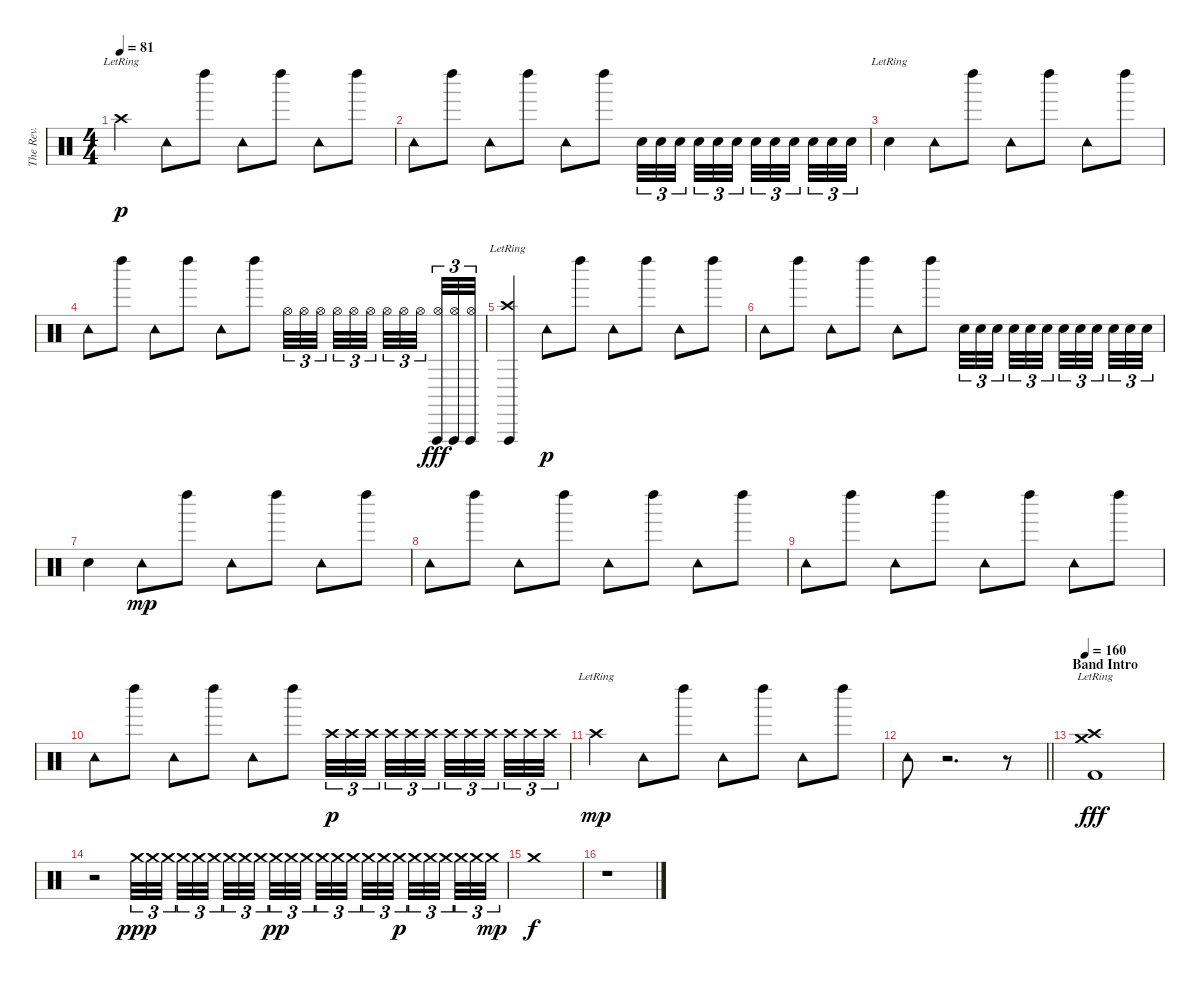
\track ("The Rev." "The Rev.") {instrument percussion}
\staff {score}
\articulation defaults
\ts (4 4)
\tempo 81
\clef neutral
\ks c "Crash high (hit)"{lr}.4{dy p} "Tambourine (hit)".8 "Left Maraca (hit)".8 "Tambourine (hit)".8 "Left Maraca (hit)".8 "Tambourine (hit)".8 "Left Maraca (hit)".8
|
"Tambourine (hit)".8 "Left Maraca (hit)".8 "Tambourine (hit)".8 "Left Maraca (hit)".8 "Tambourine (hit)".8 "Left Maraca (hit)".8 "Electric Snare (hit)".32{tu (3 2)} "Electric Snare (hit)".32{tu (3 2)} "Electric Snare (hit)".32{tu (3 2) beam splitsecondary} "Electric Snare (hit)".32{tu (3 2)} "Electric Snare (hit)".32{tu (3 2)} "Electric Snare (hit)".32{tu (3 2) beam splitsecondary} "Electric Snare (hit)".32{tu (3 2)} "Electric Snare (hit)".32{tu (3 2)} "Electric Snare (hit)".32{tu (3 2) beam splitsecondary} "Electric Snare (hit)".32{tu (3 2)} "Electric Snare (hit)".32{tu (3 2)} "Electric Snare (hit)".32{tu (3 2)} |
"Electric Snare (hit)"{lr}.4 "Tambourine (hit)".8 "Left Maraca (hit)".8 "Tambourine (hit)".8 "Left Maraca (hit)".8 "Tambourine (hit)".8 "Left Maraca (hit)".8 |
"Tambourine (hit)".8 "Left Maraca (hit)".8 "Tambourine (hit)".8 "Left Maraca (hit)".8 "Tambourine (hit)".8 "Left Maraca (hit)".8 "Hi-Hat (open)".32{tu (3 2)} "Hi-Hat (open)".32{tu (3 2)} "Hi-Hat (open)".32{tu (3 2) beam splitsecondary} "Hi-Hat (open)".32{tu (3 2)} "Hi-Hat (open)".32{tu (3 2)} "Hi-Hat (open)".32{tu (3 2) beam splitsecondary} "Hi-Hat (open)".32{tu (3 2)} "Hi-Hat (open)".32{tu (3 2)} "Hi-Hat (open)".32{tu (3 2) beam splitsecondary} ("Hi-Hat (open)" "Vibraslap (hit)").32{tu (3 2) dy fff} ("Hi-Hat (open)" "Vibraslap (hit)").32{tu (3 2)} ("Hi-Hat (open)" "Vibraslap (hit)").32{tu (3 2)} |
("Crash high (hit)"{lr} "Vibraslap (hit)"{lr}).4 "Tambourine (hit)".8{dy p} "Left Maraca (hit)".8 "Tambourine (hit)".8 "Left Maraca (hit)".8 "Tambourine (hit)".8 "Left Maraca (hit)".8 |
"Tambourine (hit)".8 "Left Maraca (hit)".8 "Tambourine (hit)".8 "Left Maraca (hit)".8 "Tambourine (hit)".8 "Left Maraca (hit)".8 "Electric Snare (hit)".32{tu (3 2)} "Electric Snare (hit)".32{tu (3 2)} "Electric Snare (hit)".32{tu (3 2) beam splitsecondary} "Electric Snare (hit)".32{tu (3 2)} "Electric Snare (hit)".32{tu (3 2)} "Electric Snare (hit)".32{tu (3 2) beam splitsecondary} "Electric Snare (hit)".32{tu (3 2)} "Electric Snare (hit)".32{tu (3 2)} "Electric Snare (hit)".32{tu (3 2) beam splitsecondary} "Electric Snare (hit)".32{tu (3 2)} "Electric Snare (hit)".32{tu (3 2)} "Electric Snare (hit)".32{tu (3 2)} |
"Electric Snare (hit)".4 "Tambourine (hit)".8{dy mp} "Left Maraca (hit)".8 "Tambourine (hit)".8 "Left Maraca (hit)".8 "Tambourine (hit)".8 "Left Maraca (hit)".8 |
"Tambourine (hit)".8 "Left Maraca (hit)".8 "Tambourine (hit)".8 "Left Maraca (hit)".8 "Tambourine (hit)".8 "Left Maraca (hit)".8 "Tambourine (hit)".8 "Left Maraca (hit)".8 |
"Tambourine (hit)".8 "Left Maraca (hit)".8 "Tambourine (hit)".8 "Left Maraca (hit)".8 "Tambourine (hit)".8 "Left Maraca (hit)".8 "Tambourine (hit)".8 "Left Maraca (hit)".8 |
"Tambourine (hit)".8 "Left Maraca (hit)".8 "Tambourine (hit)".8 "Left Maraca (hit)".8 "Tambourine (hit)".8 "Left Maraca (hit)".8 "Crash high (hit)".32{tu (3 2) dy p} "Crash high (hit)".32{tu (3 2)} "Crash high (hit)".32{tu (3 2) beam splitsecondary} "Crash high (hit)".32{tu (3 2)} "Crash high (hit)".32{tu (3 2)} "Crash high (hit)".32{tu (3 2) beam splitsecondary} "Crash high (hit)".32{tu (3 2)} "Crash high (hit)".32{tu (3 2)} "Crash high (hit)".32{tu (3 2) beam splitsecondary} "Crash high (hit)".32{tu (3 2)} "Crash high (hit)".32{tu (3 2)} "Crash high (hit)".32{tu (3 2)} |
"Crash high (hit)"{lr}.4{dy mp} "Tambourine (hit)".8 "Left Maraca (hit)".8 "Tambourine (hit)".8 "Left Maraca (hit)".8 "Tambourine (hit)".8 "Left Maraca (hit)".8 |
\barLineRight lightlight "Tambourine (hit)".8
r.2{d} r.8 |
\section ("" "Band Intro")
\tempo 160
("Kick (hit) 2" "Crash high (hit)"{lr} "Crash medium (hit)"{lr}).1{dy fff} |
r.2 "Crash medium (hit)".32{tu (3 2) dy ppp} "Crash medium (hit)".32{tu (3 2)} "Crash medium (hit)".32{tu (3 2) beam splitsecondary} "Crash medium (hit)".32{tu (3 2)} "Crash medium (hit)".32{tu (3 2)} "Crash medium (hit)".32{tu (3 2) beam splitsecondary} "Crash medium (hit)".32{tu (3 2)} "Crash medium (hit)".32{tu (3 2)} "Crash medium (hit)".32{tu (3 2) beam splitsecondary} "Crash medium (hit)".32{tu (3 2) dy pp} "Crash medium (hit)".32{tu (3 2)} "Crash medium (hit)".32{tu (3 2)} "Crash medium (hit)".32{tu (3 2)} "Crash medium (hit)".32{tu (3 2)} "Crash medium (hit)".32{tu (3 2) beam splitsecondary} "Crash medium (hit)".32{tu (3 2)} "Crash medium (hit)".32{tu (3 2)} "Crash medium (hit)".32{tu (3 2) dy p beam splitsecondary} "Crash medium (hit)".32{tu (3 2)} "Crash medium (hit)".32{tu (3 2)} "Crash medium (hit)".32{tu (3 2) beam splitsecondary} "Crash medium (hit)".32{tu (3 2)} "Crash medium (hit)".32{tu (3 2)} "Crash medium (hit)".32{tu (3 2) dy mp} |
"Crash medium (hit)".1{dy f} |
r.1
